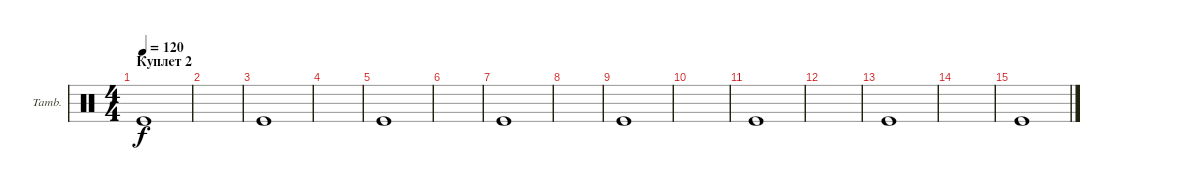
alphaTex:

\defaultSystemsLayout 4
\bracketExtendMode groupsimilarinstruments
\firstSystemTrackNameOrientation horizontal
\otherSystemsTrackNameOrientation horizontal
\track ("Tambourine" "Tamb.") {instrument percussion}
\staff {score}
\articulation defaults
\ts (4 4)
\section ("" "Куплет 2")
\tempo 120
\clef neutral
\ks c "Kick (hit)".1{dy f}
|
|
"Kick (hit)".1 |
|
"Kick (hit)".1 |
|
"Kick (hit)".1 |
|
"Kick (hit)".1 |
|
"Kick (hit)".1 |
|
"Kick (hit)".1 |
|
"Kick (hit)".1
